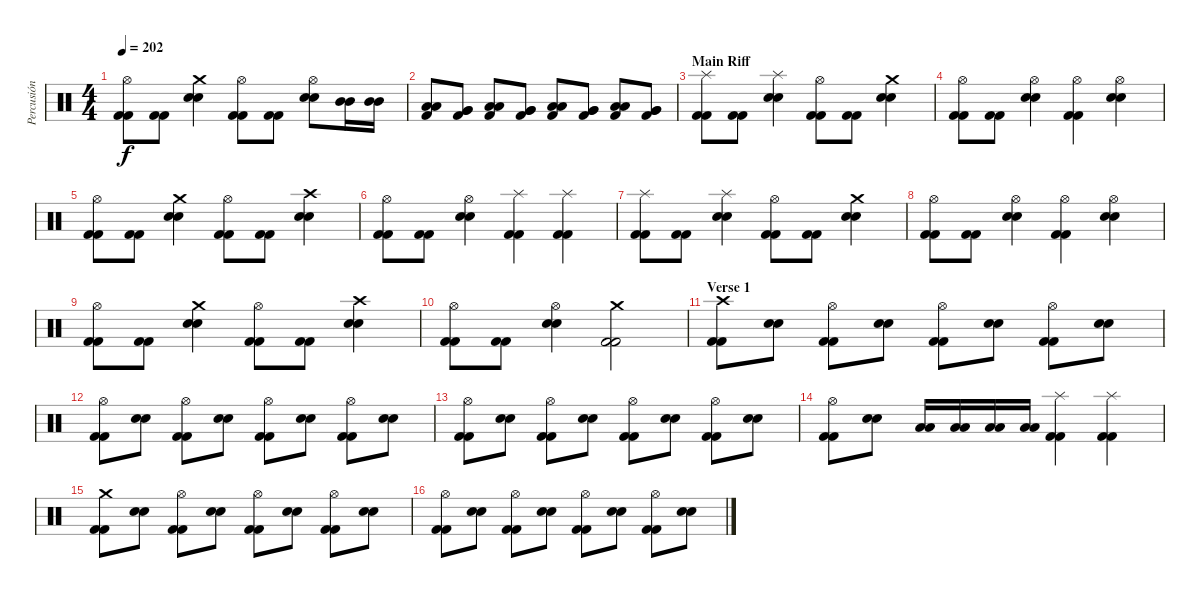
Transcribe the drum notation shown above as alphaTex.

\track ("Percusión" "Percusión") {instrument percussion}
\staff {score}
\articulation defaults
\ts (4 4)
\tempo 202
\clef neutral
\ks c
("Hi-Hat (open)" "Kick (hit) 2" "Kick (hit) 2").8{dy f} ("Kick (hit) 2" "Kick (hit) 2").8 ("Crash medium (hit)" "Snare (hit) 2" "Snare (hit) 2").4 ("Hi-Hat (open)" "Kick (hit) 2" "Kick (hit) 2").8 ("Kick (hit) 2" "Kick (hit) 2").8 ("Hi-Hat (open)" "Snare (hit) 2" "Snare (hit) 2").8 ("Mid Tom (hit)" "Mid Tom (hit)").16 ("Mid Tom (hit)" "Mid Tom (hit)").16 |
("Low Tom (hit)" "Low Tom (hit)" "Kick (hit) 2").8 ("Very Low Tom (hit)" "Very Low Tom (hit)" "Kick (hit) 2").8 ("Low Tom (hit)" "Low Tom (hit)" "Kick (hit) 2").8 ("Very Low Tom (hit)" "Very Low Tom (hit)" "Kick (hit) 2").8 ("Low Tom (hit)" "Low Tom (hit)" "Kick (hit) 2").8 ("Very Low Tom (hit)" "Very Low Tom (hit)" "Kick (hit) 2").8 ("Low Tom (hit)" "Low Tom (hit)" "Kick (hit) 2").8 ("Very Low Tom (hit)" "Very Low Tom (hit)" "Kick (hit) 2").8 |
\section ("" "Main Riff")
("Splash (hit)" "Kick (hit) 2" "Kick (hit) 2").8 ("Kick (hit) 2" "Kick (hit) 2").8 ("Splash (hit)" "Snare (hit) 2" "Snare (hit) 2").4 ("Hi-Hat (open)" "Kick (hit) 2" "Kick (hit) 2").8 ("Kick (hit) 2" "Kick (hit) 2").8 ("Crash medium (hit)" "Snare (hit) 2" "Snare (hit) 2").4 |
("Hi-Hat (open)" "Kick (hit) 2" "Kick (hit) 2").8 ("Kick (hit) 2" "Kick (hit) 2").8 ("Hi-Hat (open)" "Snare (hit) 2" "Snare (hit) 2").4 ("Hi-Hat (open)" "Kick (hit) 2" "Kick (hit) 2").4 ("Hi-Hat (open)" "Snare (hit) 2" "Snare (hit) 2").4 |
("Hi-Hat (open)" "Kick (hit) 2" "Kick (hit) 2").8 ("Kick (hit) 2" "Kick (hit) 2").8 ("Crash medium (hit)" "Snare (hit) 2" "Snare (hit) 2").4 ("Hi-Hat (open)" "Kick (hit) 2" "Kick (hit) 2").8 ("Kick (hit) 2" "Kick (hit) 2").8 ("Crash high (hit)" "Snare (hit) 2" "Snare (hit) 2").4 |
("Hi-Hat (open)" "Kick (hit) 2" "Kick (hit) 2").8 ("Kick (hit) 2" "Kick (hit) 2").8 ("Hi-Hat (open)" "Snare (hit) 2" "Snare (hit) 2").4 ("Splash (hit)" "Kick (hit) 2" "Kick (hit) 2").4 ("Splash (hit)" "Kick (hit) 2" "Kick (hit) 2").4 |
("Splash (hit)" "Kick (hit) 2" "Kick (hit) 2").8 ("Kick (hit) 2" "Kick (hit) 2").8 ("Splash (hit)" "Snare (hit) 2" "Snare (hit) 2").4 ("Hi-Hat (open)" "Kick (hit) 2" "Kick (hit) 2").8 ("Kick (hit) 2" "Kick (hit) 2").8 ("Crash medium (hit)" "Snare (hit) 2" "Snare (hit) 2").4 |
("Hi-Hat (open)" "Kick (hit) 2" "Kick (hit) 2").8 ("Kick (hit) 2" "Kick (hit) 2").8 ("Hi-Hat (open)" "Snare (hit) 2" "Snare (hit) 2").4 ("Hi-Hat (open)" "Kick (hit) 2" "Kick (hit) 2").4 ("Hi-Hat (open)" "Snare (hit) 2" "Snare (hit) 2").4 |
("Hi-Hat (open)" "Kick (hit) 2" "Kick (hit) 2").8 ("Kick (hit) 2" "Kick (hit) 2").8 ("Crash medium (hit)" "Snare (hit) 2" "Snare (hit) 2").4 ("Hi-Hat (open)" "Kick (hit) 2" "Kick (hit) 2").8 ("Kick (hit) 2" "Kick (hit) 2").8 ("Crash high (hit)" "Snare (hit) 2" "Snare (hit) 2").4 |
("Hi-Hat (open)" "Kick (hit) 2" "Kick (hit) 2").8 ("Kick (hit) 2" "Kick (hit) 2").8 ("Hi-Hat (open)" "Snare (hit) 2" "Snare (hit) 2").4 ("Crash medium (hit)" "Kick (hit) 2" "Kick (hit) 2").2 |
\section ("" "Verse 1")
("Crash high (hit)" "Kick (hit) 2" "Kick (hit) 2").8 ("Snare (hit) 2" "Snare (hit) 2").8 ("Hi-Hat (open)" "Kick (hit) 2" "Kick (hit) 2").8 ("Snare (hit) 2" "Snare (hit) 2").8 ("Hi-Hat (open)" "Kick (hit) 2" "Kick (hit) 2").8 ("Snare (hit) 2" "Snare (hit) 2").8 ("Hi-Hat (open)" "Kick (hit) 2" "Kick (hit) 2").8 ("Snare (hit) 2" "Snare (hit) 2").8 |
("Hi-Hat (open)" "Kick (hit) 2" "Kick (hit) 2").8 ("Snare (hit) 2" "Snare (hit) 2").8 ("Hi-Hat (open)" "Kick (hit) 2" "Kick (hit) 2").8 ("Snare (hit) 2" "Snare (hit) 2").8 ("Hi-Hat (open)" "Kick (hit) 2" "Kick (hit) 2").8 ("Snare (hit) 2" "Snare (hit) 2").8 ("Hi-Hat (open)" "Kick (hit) 2" "Kick (hit) 2").8 ("Snare (hit) 2" "Snare (hit) 2").8 |
("Hi-Hat (open)" "Kick (hit) 2" "Kick (hit) 2").8 ("Snare (hit) 2" "Snare (hit) 2").8 ("Hi-Hat (open)" "Kick (hit) 2" "Kick (hit) 2").8 ("Snare (hit) 2" "Snare (hit) 2").8 ("Hi-Hat (open)" "Kick (hit) 2" "Kick (hit) 2").8 ("Snare (hit) 2" "Snare (hit) 2").8 ("Hi-Hat (open)" "Kick (hit) 2" "Kick (hit) 2").8 ("Snare (hit) 2" "Snare (hit) 2").8 |
("Hi-Hat (open)" "Kick (hit) 2" "Kick (hit) 2").8 ("Snare (hit) 2" "Snare (hit) 2").8 ("Low Tom (hit)" "Low Tom (hit)").16 ("Low Tom (hit)" "Low Tom (hit)").16 ("Low Tom (hit)" "Low Tom (hit)").16 ("Low Tom (hit)" "Low Tom (hit)").16 ("Splash (hit)" "Kick (hit) 2" "Kick (hit) 2").4 ("Splash (hit)" "Kick (hit) 2" "Kick (hit) 2").4 |
("Crash medium (hit)" "Kick (hit) 2" "Kick (hit) 2").8 ("Snare (hit) 2" "Snare (hit) 2").8 ("Hi-Hat (open)" "Kick (hit) 2" "Kick (hit) 2").8 ("Snare (hit) 2" "Snare (hit) 2").8 ("Hi-Hat (open)" "Kick (hit) 2" "Kick (hit) 2").8 ("Snare (hit) 2" "Snare (hit) 2").8 ("Hi-Hat (open)" "Kick (hit) 2" "Kick (hit) 2").8 ("Snare (hit) 2" "Snare (hit) 2").8 |
("Hi-Hat (open)" "Kick (hit) 2" "Kick (hit) 2").8 ("Snare (hit) 2" "Snare (hit) 2").8 ("Hi-Hat (open)" "Kick (hit) 2" "Kick (hit) 2").8 ("Snare (hit) 2" "Snare (hit) 2").8 ("Hi-Hat (open)" "Kick (hit) 2" "Kick (hit) 2").8 ("Snare (hit) 2" "Snare (hit) 2").8 ("Hi-Hat (open)" "Kick (hit) 2" "Kick (hit) 2").8 ("Snare (hit) 2" "Snare (hit) 2").8
